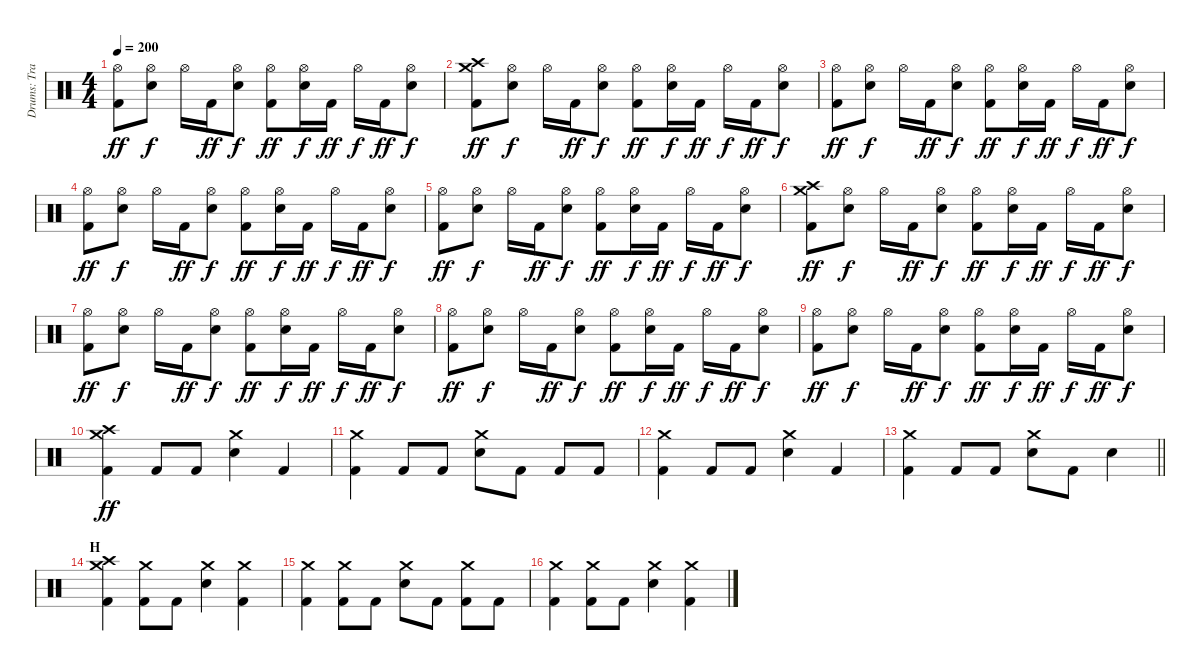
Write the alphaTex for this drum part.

\track ("Drums: Travis Clarke" "Drums: Tra") {instrument percussion}
\staff {score}
\articulation defaults
\ts (4 4)
\tempo 200
\clef neutral
\ks c
("Kick (hit) 2" "Hi-Hat (open)").8{dy ff} ("Snare (hit) 2" "Hi-Hat (open)").8{dy f} "Hi-Hat (open)".16 "Kick (hit) 2".16{dy ff} ("Snare (hit) 2" "Hi-Hat (open)").8{dy f} ("Kick (hit) 2" "Hi-Hat (open)").8{dy ff} ("Snare (hit) 2" "Hi-Hat (open)").16{dy f} "Kick (hit) 2".16{dy ff} "Hi-Hat (open)".16{dy f} "Kick (hit) 2".16{dy ff} ("Snare (hit) 2" "Hi-Hat (open)").8{dy f} |
("Kick (hit) 2" "Crash high (hit)" "Crash medium (hit)").8{dy ff} ("Snare (hit) 2" "Hi-Hat (open)").8{dy f} "Hi-Hat (open)".16 "Kick (hit) 2".16{dy ff} ("Snare (hit) 2" "Hi-Hat (open)").8{dy f} ("Kick (hit) 2" "Hi-Hat (open)").8{dy ff} ("Snare (hit) 2" "Hi-Hat (open)").16{dy f} "Kick (hit) 2".16{dy ff} "Hi-Hat (open)".16{dy f} "Kick (hit) 2".16{dy ff} ("Snare (hit) 2" "Hi-Hat (open)").8{dy f} |
("Kick (hit) 2" "Hi-Hat (open)").8{dy ff} ("Snare (hit) 2" "Hi-Hat (open)").8{dy f} "Hi-Hat (open)".16 "Kick (hit) 2".16{dy ff} ("Snare (hit) 2" "Hi-Hat (open)").8{dy f} ("Kick (hit) 2" "Hi-Hat (open)").8{dy ff} ("Snare (hit) 2" "Hi-Hat (open)").16{dy f} "Kick (hit) 2".16{dy ff} "Hi-Hat (open)".16{dy f} "Kick (hit) 2".16{dy ff} ("Snare (hit) 2" "Hi-Hat (open)").8{dy f} |
("Kick (hit) 2" "Hi-Hat (open)").8{dy ff} ("Snare (hit) 2" "Hi-Hat (open)").8{dy f} "Hi-Hat (open)".16 "Kick (hit) 2".16{dy ff} ("Snare (hit) 2" "Hi-Hat (open)").8{dy f} ("Kick (hit) 2" "Hi-Hat (open)").8{dy ff} ("Snare (hit) 2" "Hi-Hat (open)").16{dy f} "Kick (hit) 2".16{dy ff} "Hi-Hat (open)".16{dy f} "Kick (hit) 2".16{dy ff} ("Snare (hit) 2" "Hi-Hat (open)").8{dy f} |
("Kick (hit) 2" "Hi-Hat (open)").8{dy ff} ("Snare (hit) 2" "Hi-Hat (open)").8{dy f} "Hi-Hat (open)".16 "Kick (hit) 2".16{dy ff} ("Snare (hit) 2" "Hi-Hat (open)").8{dy f} ("Kick (hit) 2" "Hi-Hat (open)").8{dy ff} ("Snare (hit) 2" "Hi-Hat (open)").16{dy f} "Kick (hit) 2".16{dy ff} "Hi-Hat (open)".16{dy f} "Kick (hit) 2".16{dy ff} ("Snare (hit) 2" "Hi-Hat (open)").8{dy f} |
("Kick (hit) 2" "Crash high (hit)" "Crash medium (hit)").8{dy ff} ("Snare (hit) 2" "Hi-Hat (open)").8{dy f} "Hi-Hat (open)".16 "Kick (hit) 2".16{dy ff} ("Snare (hit) 2" "Hi-Hat (open)").8{dy f} ("Kick (hit) 2" "Hi-Hat (open)").8{dy ff} ("Snare (hit) 2" "Hi-Hat (open)").16{dy f} "Kick (hit) 2".16{dy ff} "Hi-Hat (open)".16{dy f} "Kick (hit) 2".16{dy ff} ("Snare (hit) 2" "Hi-Hat (open)").8{dy f} |
("Kick (hit) 2" "Hi-Hat (open)").8{dy ff} ("Snare (hit) 2" "Hi-Hat (open)").8{dy f} "Hi-Hat (open)".16 "Kick (hit) 2".16{dy ff} ("Snare (hit) 2" "Hi-Hat (open)").8{dy f} ("Kick (hit) 2" "Hi-Hat (open)").8{dy ff} ("Snare (hit) 2" "Hi-Hat (open)").16{dy f} "Kick (hit) 2".16{dy ff} "Hi-Hat (open)".16{dy f} "Kick (hit) 2".16{dy ff} ("Snare (hit) 2" "Hi-Hat (open)").8{dy f} |
("Kick (hit) 2" "Hi-Hat (open)").8{dy ff} ("Snare (hit) 2" "Hi-Hat (open)").8{dy f} "Hi-Hat (open)".16 "Kick (hit) 2".16{dy ff} ("Snare (hit) 2" "Hi-Hat (open)").8{dy f} ("Kick (hit) 2" "Hi-Hat (open)").8{dy ff} ("Snare (hit) 2" "Hi-Hat (open)").16{dy f} "Kick (hit) 2".16{dy ff} "Hi-Hat (open)".16{dy f} "Kick (hit) 2".16{dy ff} ("Snare (hit) 2" "Hi-Hat (open)").8{dy f} |
("Kick (hit) 2" "Hi-Hat (open)").8{dy ff} ("Snare (hit) 2" "Hi-Hat (open)").8{dy f} "Hi-Hat (open)".16 "Kick (hit) 2".16{dy ff} ("Snare (hit) 2" "Hi-Hat (open)").8{dy f} ("Kick (hit) 2" "Hi-Hat (open)").8{dy ff} ("Snare (hit) 2" "Hi-Hat (open)").16{dy f} "Kick (hit) 2".16{dy ff} "Hi-Hat (open)".16{dy f} "Kick (hit) 2".16{dy ff} ("Snare (hit) 2" "Hi-Hat (open)").8{dy f} |
("Kick (hit) 2" "Crash high (hit)" "Crash medium (hit)").4{dy ff} "Kick (hit) 2".8 "Kick (hit) 2".8 ("Snare (hit) 2" "Crash medium (hit)").4 "Kick (hit) 2".4 |
("Kick (hit) 2" "Crash medium (hit)").4 "Kick (hit) 2".8 "Kick (hit) 2".8 ("Snare (hit) 2" "Crash medium (hit)").8 "Kick (hit) 2".8 "Kick (hit) 2".8 "Kick (hit) 2".8 |
("Kick (hit) 2" "Crash medium (hit)").4 "Kick (hit) 2".8 "Kick (hit) 2".8 ("Snare (hit) 2" "Crash medium (hit)").4 "Kick (hit) 2".4 |
\barLineRight lightlight
("Kick (hit) 2" "Crash medium (hit)").4 "Kick (hit) 2".8 "Kick (hit) 2".8 ("Snare (hit) 2" "Crash medium (hit)").8 "Kick (hit) 2".8 "Snare (hit) 2".4 |
\section ("" "H")
("Kick (hit) 2" "Crash high (hit)" "Crash medium (hit)").4 ("Kick (hit) 2" "Crash medium (hit)").8 "Kick (hit) 2".8 ("Snare (hit) 2" "Crash medium (hit)").4 ("Kick (hit) 2" "Crash medium (hit)").4 |
("Kick (hit) 2" "Crash medium (hit)").4 ("Kick (hit) 2" "Crash medium (hit)").8 "Kick (hit) 2".8 ("Snare (hit) 2" "Crash medium (hit)").8 "Kick (hit) 2".8 ("Kick (hit) 2" "Crash medium (hit)").8 "Kick (hit) 2".8 |
("Kick (hit) 2" "Crash medium (hit)").4 ("Kick (hit) 2" "Crash medium (hit)").8 "Kick (hit) 2".8 ("Snare (hit) 2" "Crash medium (hit)").4 ("Kick (hit) 2" "Crash medium (hit)").4
